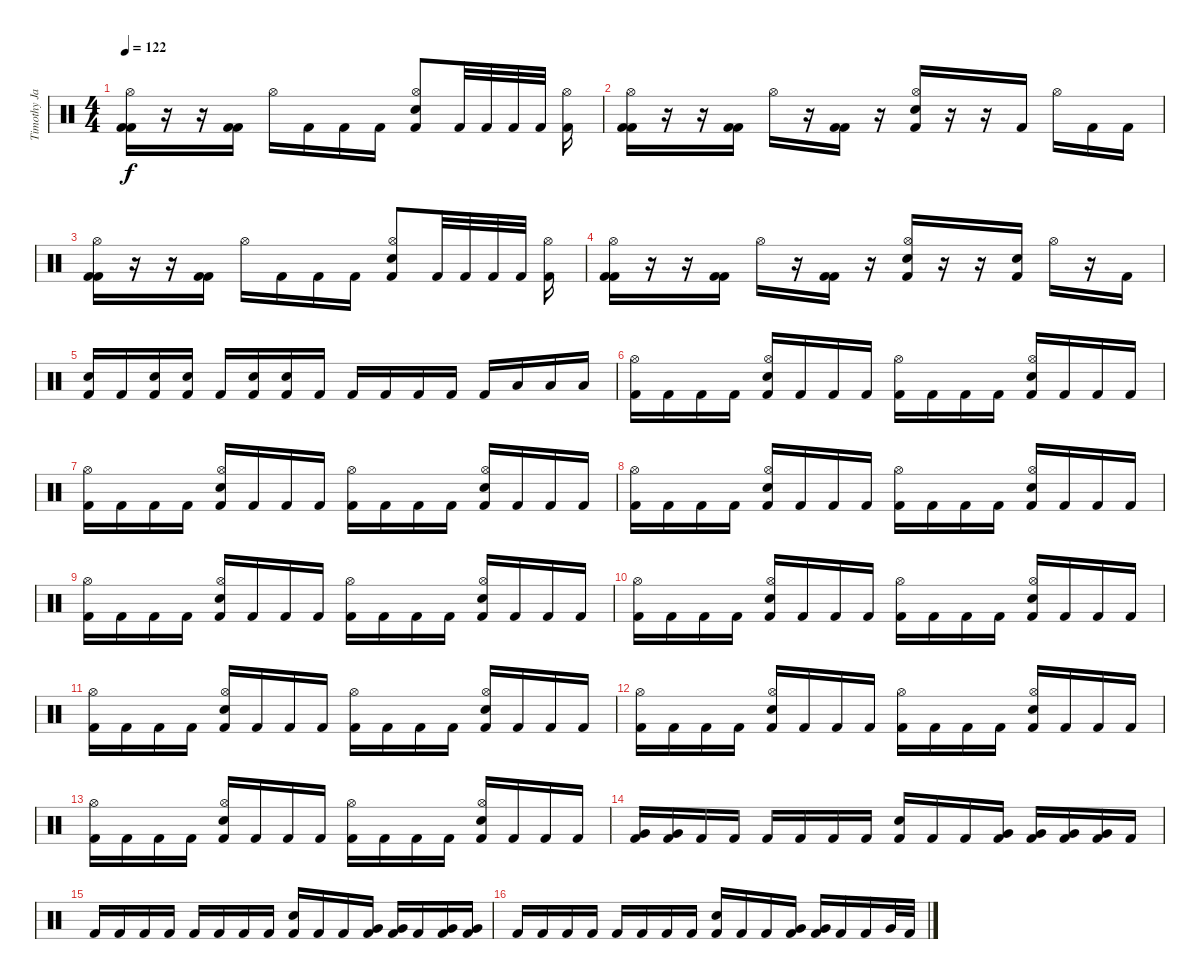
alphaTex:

\track ("Timothy Java" "Timothy Ja") {instrument percussion}
\staff {score}
\articulation defaults
\ts (4 4)
\tempo 122
\clef neutral
\ks c
("Kick (hit) 2" "Kick (hit) 2" "Hi-Hat (open)").16{dy f} r.16 r.16 ("Kick (hit) 2" "Kick (hit) 2").16 "Hi-Hat (open)".16 "Kick (hit) 2".16 "Kick (hit) 2".16 "Kick (hit) 2".16 ("Kick (hit) 2" "Electric Snare (hit)" "Hi-Hat (open)").8 "Kick (hit) 2".32 "Kick (hit) 2".32 "Kick (hit) 2".32 "Kick (hit) 2".32 ("Kick (hit) 2" "Hi-Hat (open)").16 |
("Kick (hit) 2" "Kick (hit) 2" "Hi-Hat (open)").16 r.16 r.16 ("Kick (hit) 2" "Kick (hit) 2").16 "Hi-Hat (open)".16 r.16 ("Kick (hit) 2" "Kick (hit) 2").16 r.16 ("Kick (hit) 2" "Electric Snare (hit)" "Hi-Hat (open)").16 r.16 r.16 "Kick (hit) 2".16 "Hi-Hat (open)".16 "Kick (hit) 2".16 "Kick (hit) 2".16 |
("Kick (hit) 2" "Kick (hit) 2" "Hi-Hat (open)").16 r.16 r.16 ("Kick (hit) 2" "Kick (hit) 2").16 "Hi-Hat (open)".16 "Kick (hit) 2".16 "Kick (hit) 2".16 "Kick (hit) 2".16 ("Kick (hit) 2" "Electric Snare (hit)" "Hi-Hat (open)").8 "Kick (hit) 2".32 "Kick (hit) 2".32 "Kick (hit) 2".32 "Kick (hit) 2".32 ("Kick (hit) 2" "Hi-Hat (open)").16 |
("Kick (hit) 2" "Kick (hit) 2" "Hi-Hat (open)").16 r.16 r.16 ("Kick (hit) 2" "Kick (hit) 2").16 "Hi-Hat (open)".16 r.16 ("Kick (hit) 2" "Kick (hit) 2").16 r.16 ("Kick (hit) 2" "Electric Snare (hit)" "Hi-Hat (open)").16 r.16 r.16 ("Kick (hit) 2" "Electric Snare (hit)").16 "Hi-Hat (open)".16 r.16 "Kick (hit) 2".16 |
("Kick (hit) 2" "Electric Snare (hit)").16 "Kick (hit) 2".16 ("Kick (hit) 2" "Snare (hit) 2").16 ("Kick (hit) 2" "Snare (hit) 2").16 "Kick (hit) 2".16 ("Kick (hit) 2" "Electric Snare (hit)").16 ("Kick (hit) 2" "Electric Snare (hit)").16 "Kick (hit) 2".16 "Kick (hit) 2".16 "Kick (hit) 2".16 "Kick (hit) 2".16 "Kick (hit) 2".16 "Kick (hit) 2".16 "Low Tom (hit)".16 "Low Tom (hit)".16 "Low Tom (hit)".16 |
("Kick (hit) 2" "Hi-Hat (open)").16 "Kick (hit) 2".16 "Kick (hit) 2".16 "Kick (hit) 2".16 ("Kick (hit) 2" "Electric Snare (hit)" "Hi-Hat (open)").16 "Kick (hit) 2".16 "Kick (hit) 2".16 "Kick (hit) 2".16 ("Kick (hit) 2" "Hi-Hat (open)").16 "Kick (hit) 2".16 "Kick (hit) 2".16 "Kick (hit) 2".16 ("Kick (hit) 2" "Electric Snare (hit)" "Hi-Hat (open)").16 "Kick (hit) 2".16 "Kick (hit) 2".16 "Kick (hit) 2".16 |
("Kick (hit) 2" "Hi-Hat (open)").16 "Kick (hit) 2".16 "Kick (hit) 2".16 "Kick (hit) 2".16 ("Kick (hit) 2" "Electric Snare (hit)" "Hi-Hat (open)").16 "Kick (hit) 2".16 "Kick (hit) 2".16 "Kick (hit) 2".16 ("Kick (hit) 2" "Hi-Hat (open)").16 "Kick (hit) 2".16 "Kick (hit) 2".16 "Kick (hit) 2".16 ("Kick (hit) 2" "Electric Snare (hit)" "Hi-Hat (open)").16 "Kick (hit) 2".16 "Kick (hit) 2".16 "Kick (hit) 2".16 |
("Kick (hit) 2" "Hi-Hat (open)").16 "Kick (hit) 2".16 "Kick (hit) 2".16 "Kick (hit) 2".16 ("Kick (hit) 2" "Electric Snare (hit)" "Hi-Hat (open)").16 "Kick (hit) 2".16 "Kick (hit) 2".16 "Kick (hit) 2".16 ("Kick (hit) 2" "Hi-Hat (open)").16 "Kick (hit) 2".16 "Kick (hit) 2".16 "Kick (hit) 2".16 ("Kick (hit) 2" "Electric Snare (hit)" "Hi-Hat (open)").16 "Kick (hit) 2".16 "Kick (hit) 2".16 "Kick (hit) 2".16 |
("Kick (hit) 2" "Hi-Hat (open)").16 "Kick (hit) 2".16 "Kick (hit) 2".16 "Kick (hit) 2".16 ("Kick (hit) 2" "Electric Snare (hit)" "Hi-Hat (open)").16 "Kick (hit) 2".16 "Kick (hit) 2".16 "Kick (hit) 2".16 ("Kick (hit) 2" "Hi-Hat (open)").16 "Kick (hit) 2".16 "Kick (hit) 2".16 "Kick (hit) 2".16 ("Kick (hit) 2" "Electric Snare (hit)" "Hi-Hat (open)").16 "Kick (hit) 2".16 "Kick (hit) 2".16 "Kick (hit) 2".16 |
("Kick (hit) 2" "Hi-Hat (open)").16 "Kick (hit) 2".16 "Kick (hit) 2".16 "Kick (hit) 2".16 ("Kick (hit) 2" "Electric Snare (hit)" "Hi-Hat (open)").16 "Kick (hit) 2".16 "Kick (hit) 2".16 "Kick (hit) 2".16 ("Kick (hit) 2" "Hi-Hat (open)").16 "Kick (hit) 2".16 "Kick (hit) 2".16 "Kick (hit) 2".16 ("Kick (hit) 2" "Electric Snare (hit)" "Hi-Hat (open)").16 "Kick (hit) 2".16 "Kick (hit) 2".16 "Kick (hit) 2".16 |
("Kick (hit) 2" "Hi-Hat (open)").16 "Kick (hit) 2".16 "Kick (hit) 2".16 "Kick (hit) 2".16 ("Kick (hit) 2" "Electric Snare (hit)" "Hi-Hat (open)").16 "Kick (hit) 2".16 "Kick (hit) 2".16 "Kick (hit) 2".16 ("Kick (hit) 2" "Hi-Hat (open)").16 "Kick (hit) 2".16 "Kick (hit) 2".16 "Kick (hit) 2".16 ("Kick (hit) 2" "Electric Snare (hit)" "Hi-Hat (open)").16 "Kick (hit) 2".16 "Kick (hit) 2".16 "Kick (hit) 2".16 |
("Kick (hit) 2" "Hi-Hat (open)").16 "Kick (hit) 2".16 "Kick (hit) 2".16 "Kick (hit) 2".16 ("Kick (hit) 2" "Electric Snare (hit)" "Hi-Hat (open)").16 "Kick (hit) 2".16 "Kick (hit) 2".16 "Kick (hit) 2".16 ("Kick (hit) 2" "Hi-Hat (open)").16 "Kick (hit) 2".16 "Kick (hit) 2".16 "Kick (hit) 2".16 ("Kick (hit) 2" "Electric Snare (hit)" "Hi-Hat (open)").16 "Kick (hit) 2".16 "Kick (hit) 2".16 "Kick (hit) 2".16 |
("Kick (hit) 2" "Hi-Hat (open)").16 "Kick (hit) 2".16 "Kick (hit) 2".16 "Kick (hit) 2".16 ("Kick (hit) 2" "Electric Snare (hit)" "Hi-Hat (open)").16 "Kick (hit) 2".16 "Kick (hit) 2".16 "Kick (hit) 2".16 ("Kick (hit) 2" "Hi-Hat (open)").16 "Kick (hit) 2".16 "Kick (hit) 2".16 "Kick (hit) 2".16 ("Kick (hit) 2" "Electric Snare (hit)" "Hi-Hat (open)").16 "Kick (hit) 2".16 "Kick (hit) 2".16 "Kick (hit) 2".16 |
("Very Low Tom (hit)" "Kick (hit) 2").16 ("Very Low Tom (hit)" "Kick (hit) 2").16 "Kick (hit) 2".16 "Kick (hit) 2".16 "Kick (hit) 2".16 "Kick (hit) 2".16 "Kick (hit) 2".16 "Kick (hit) 2".16 ("Electric Snare (hit)" "Kick (hit) 2").16 "Kick (hit) 2".16 "Kick (hit) 2".16 ("Very Low Tom (hit)" "Kick (hit) 2").16 ("Very Low Tom (hit)" "Kick (hit) 2").16 ("Very Low Tom (hit)" "Kick (hit) 2").16 ("Very Low Tom (hit)" "Kick (hit) 2").16 "Kick (hit) 2".16 |
"Kick (hit) 2".16 "Kick (hit) 2".16 "Kick (hit) 2".16 "Kick (hit) 2".16 "Kick (hit) 2".16 "Kick (hit) 2".16 "Kick (hit) 2".16 "Kick (hit) 2".16 ("Electric Snare (hit)" "Kick (hit) 2").16 "Kick (hit) 2".16 "Kick (hit) 2".16 ("Very Low Tom (hit)" "Kick (hit) 2").16 ("Very Low Tom (hit)" "Kick (hit) 2").16 "Kick (hit) 2".16 ("Very Low Tom (hit)" "Kick (hit) 2").16 ("Very Low Tom (hit)" "Kick (hit) 2").16 |
"Kick (hit) 2".16 "Kick (hit) 2".16 "Kick (hit) 2".16 "Kick (hit) 2".16 "Kick (hit) 2".16 "Kick (hit) 2".16 "Kick (hit) 2".16 "Kick (hit) 2".16 ("Electric Snare (hit)" "Kick (hit) 2").16 "Kick (hit) 2".16 "Kick (hit) 2".16 ("Very Low Tom (hit)" "Kick (hit) 2").16 ("Very Low Tom (hit)" "Kick (hit) 2").16 "Kick (hit) 2".16 "Kick (hit) 2".16 "Very Low Tom (hit)".32 "Kick (hit) 2".32
